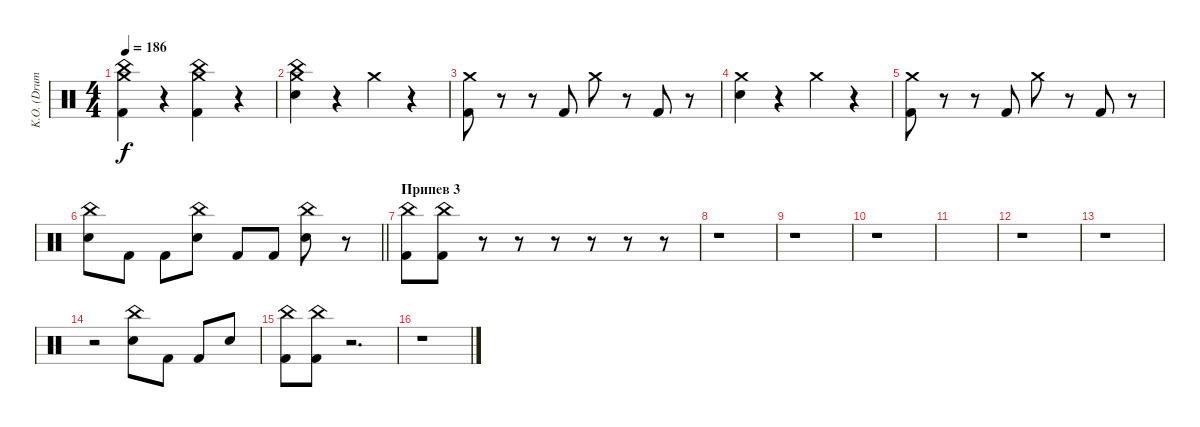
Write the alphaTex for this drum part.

\track ("K.O. (Drums)" "K.O. (Drum") {instrument percussion}
\staff {score}
\articulation defaults
\ts (4 4)
\tempo 186
\clef neutral
\ks c
("China (hit)" "Crash medium (hit)" "Kick (hit) 2").4{dy f} r.4 ("China (hit)" "Crash medium (hit)" "Kick (hit) 2").4 r.4 |
("China (hit)" "Crash medium (hit)" "Electric Snare (hit)").4 r.4 "Crash medium (hit)".4 r.4 |
("Crash medium (hit)" "Kick (hit) 2").8 r.8 r.8 "Kick (hit) 2".8 "Crash medium (hit)".8 r.8 "Kick (hit) 2".8 r.8 |
("Crash medium (hit)" "Electric Snare (hit)").4 r.4 "Crash medium (hit)".4 r.4 |
("Crash medium (hit)" "Kick (hit) 2").8 r.8 r.8 "Kick (hit) 2".8 "Crash medium (hit)".8 r.8 "Kick (hit) 2".8 r.8 |
\barLineRight lightlight
("China (hit)" "Electric Snare (hit)").8 "Kick (hit) 2".8 "Kick (hit) 2".8 ("China (hit)" "Electric Snare (hit)").8 "Kick (hit) 2".8 "Kick (hit) 2".8 ("China (hit)" "Electric Snare (hit)").8 r.8 |
\section ("" "Припев 3")
("China (hit)" "Kick (hit) 2").8 ("China (hit)" "Kick (hit) 2").8 r.8 r.8 r.8 r.8 r.8 r.8 |
r.1 |
r.1 |
r.1 |
|
r.1 |
r.1 |
r.2 ("China (hit)" "Electric Snare (hit)").8 "Kick (hit) 2".8 "Kick (hit) 2".8 "Electric Snare (hit)".8 |
("China (hit)" "Kick (hit) 2").8 ("China (hit)" "Kick (hit) 2").8 r.2{d} |
r.1
